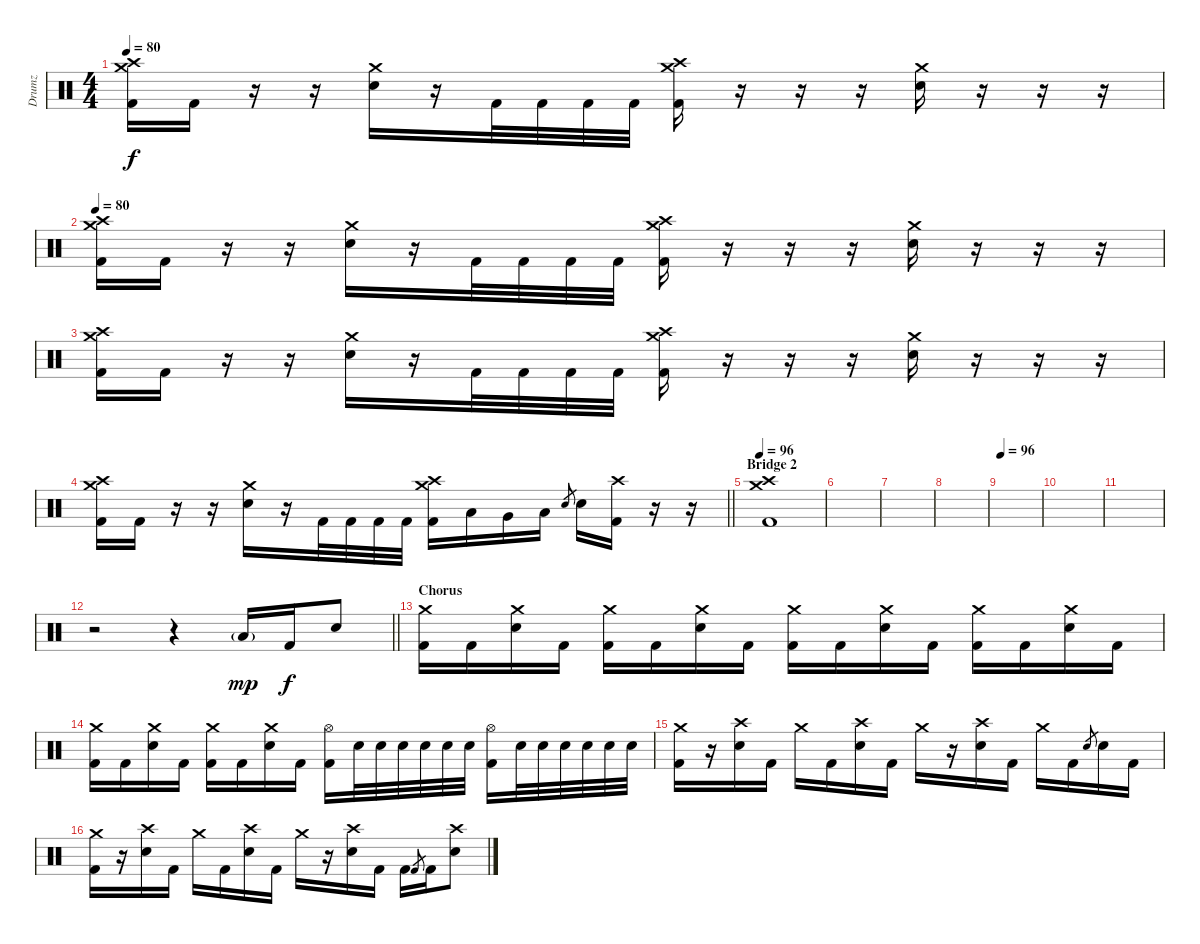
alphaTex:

\track ("Drumz" "Drumz") {instrument percussion}
\staff {score}
\articulation defaults
\ts (4 4)
\tempo 80
\clef neutral
\ks c
("Crash medium (hit)" "Crash high (hit)" "Kick (hit) 2").16{dy f} "Kick (hit) 2".16 r.16 r.16 ("Crash medium (hit)" "Electric Snare (hit)").16 r.16 "Kick (hit) 2".32 "Kick (hit) 2".32 "Kick (hit) 2".32 "Kick (hit) 2".32 ("Crash medium (hit)" "Crash high (hit)" "Kick (hit) 2").16 r.16 r.16 r.16 ("Crash medium (hit)" "Electric Snare (hit)").16 r.16 r.16 r.16 |
\tempo 80
("Crash medium (hit)" "Crash high (hit)" "Kick (hit) 2").16 "Kick (hit) 2".16 r.16 r.16 ("Crash medium (hit)" "Electric Snare (hit)").16 r.16 "Kick (hit) 2".32 "Kick (hit) 2".32 "Kick (hit) 2".32 "Kick (hit) 2".32 ("Crash medium (hit)" "Crash high (hit)" "Kick (hit) 2").16 r.16 r.16 r.16 ("Crash medium (hit)" "Electric Snare (hit)").16 r.16 r.16 r.16 |
("Crash medium (hit)" "Crash high (hit)" "Kick (hit) 2").16 "Kick (hit) 2".16 r.16 r.16 ("Crash medium (hit)" "Electric Snare (hit)").16 r.16 "Kick (hit) 2".32 "Kick (hit) 2".32 "Kick (hit) 2".32 "Kick (hit) 2".32 ("Crash medium (hit)" "Crash high (hit)" "Kick (hit) 2").16 r.16 r.16 r.16 ("Crash medium (hit)" "Electric Snare (hit)").16 r.16 r.16 r.16 |
\barLineRight lightlight
("Crash medium (hit)" "Crash high (hit)" "Kick (hit) 2").16 "Kick (hit) 2".16 r.16 r.16 ("Crash medium (hit)" "Electric Snare (hit)").16 r.16 "Kick (hit) 2".32 "Kick (hit) 2".32 "Kick (hit) 2".32 "Kick (hit) 2".32 ("Crash medium (hit)" "Crash high (hit)" "Kick (hit) 2").16 "Low Floor Tom (hit)".16 "Very Low Tom (hit)".16 "Low Floor Tom (hit)".16 "Electric Snare (hit)".8{gr} "Electric Snare (hit)".16 ("Crash high (hit)" "Kick (hit) 2").16 r.16 r.16 |
\section ("" "Bridge 2")
\tempo 96
("Crash medium (hit)" "Crash high (hit)" "Kick (hit) 2").1 |
|
|
|
\tempo 96
|
|
|
\barLineRight lightlight
r.2 r.4 "Low Floor Tom (hit)"{g}.16{dy mp} "Kick (hit) 2".16{dy f} "Electric Snare (hit)".8 |
\section ("" "Chorus")
("Crash medium (hit)" "Kick (hit) 2").16 "Kick (hit) 2".16 ("Crash medium (hit)" "Electric Snare (hit)").16 "Kick (hit) 2".16 ("Crash medium (hit)" "Kick (hit) 2").16 "Kick (hit) 2".16 ("Crash medium (hit)" "Electric Snare (hit)").16 "Kick (hit) 2".16 ("Crash medium (hit)" "Kick (hit) 2").16 "Kick (hit) 2".16 ("Crash medium (hit)" "Electric Snare (hit)").16 "Kick (hit) 2".16 ("Crash medium (hit)" "Kick (hit) 2").16 "Kick (hit) 2".16 ("Crash medium (hit)" "Electric Snare (hit)").16 "Kick (hit) 2".16 |
("Crash medium (hit)" "Kick (hit) 2").16 "Kick (hit) 2".16 ("Crash medium (hit)" "Electric Snare (hit)").16 "Kick (hit) 2".16 ("Crash medium (hit)" "Kick (hit) 2").16 "Kick (hit) 2".16 ("Crash medium (hit)" "Electric Snare (hit)").16 "Kick (hit) 2".16 ("Hi-Hat (open)" "Kick (hit) 2").16 "Electric Snare (hit)".32 "Electric Snare (hit)".32 "Electric Snare (hit)".32 "Electric Snare (hit)".32 "Electric Snare (hit)".32 "Electric Snare (hit)".32 ("Hi-Hat (open)" "Kick (hit) 2").16 "Electric Snare (hit)".32 "Electric Snare (hit)".32 "Electric Snare (hit)".32 "Electric Snare (hit)".32 "Electric Snare (hit)".32 "Electric Snare (hit)".32 |
("Crash medium (hit)" "Kick (hit) 2").16 r.16 ("Crash high (hit)" "Electric Snare (hit)").16 "Kick (hit) 2".16 "Crash medium (hit)".16 "Kick (hit) 2".16 ("Crash high (hit)" "Electric Snare (hit)").16 "Kick (hit) 2".16 "Crash medium (hit)".16 r.16 ("Crash high (hit)" "Electric Snare (hit)").16 "Kick (hit) 2".16 "Crash medium (hit)".16 "Kick (hit) 2".16 "Electric Snare (hit)".8{gr} "Electric Snare (hit)".16 "Kick (hit) 2".16 |
("Crash medium (hit)" "Kick (hit) 2").16 r.16 ("Crash high (hit)" "Electric Snare (hit)").16 "Kick (hit) 2".16 "Crash medium (hit)".16 "Kick (hit) 2".16 ("Crash high (hit)" "Electric Snare (hit)").16 "Kick (hit) 2".16 "Crash medium (hit)".16 r.16 ("Crash high (hit)" "Electric Snare (hit)").16 "Kick (hit) 2".16 "Kick (hit) 2".16 "Kick (hit) 2".8{gr} "Kick (hit) 2".16 ("Crash high (hit)" "Electric Snare (hit)").8
